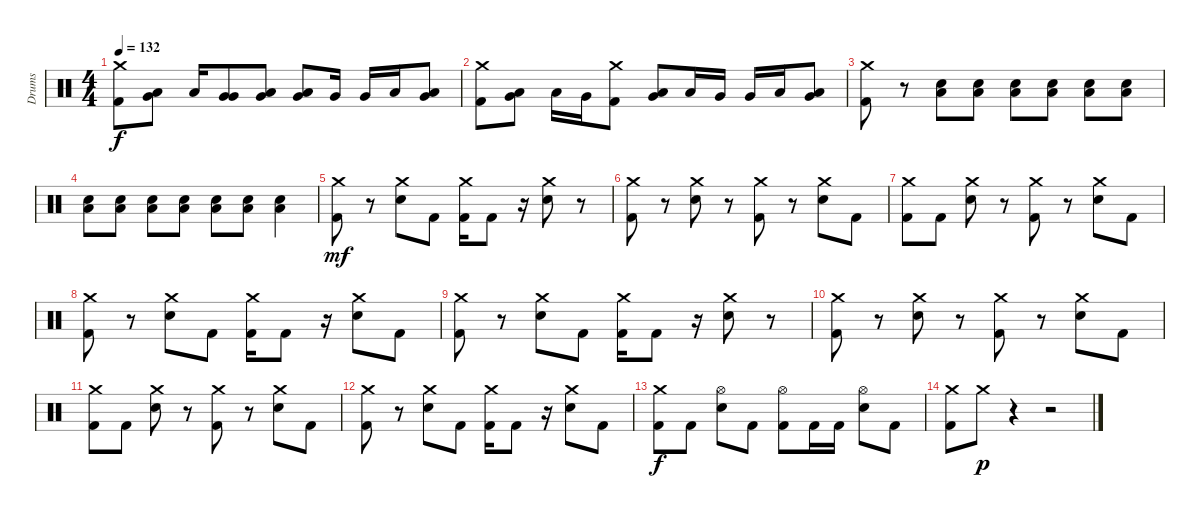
\track ("Drums" "Drums") {instrument percussion}
\staff {score}
\articulation defaults
\ts (4 4)
\tempo 132
\clef neutral
\ks c
("Crash medium (hit)" "Kick (hit) 2").8{dy f} ("Very Low Tom (hit)" "Low Floor Tom (hit)").8 "Low Floor Tom (hit)".16 ("Very Low Tom (hit)" "Very Low Tom (hit)").8 ("Very Low Tom (hit)" "Low Floor Tom (hit)").8 ("Very Low Tom (hit)" "Low Floor Tom (hit)").8 "Very Low Tom (hit)".16 "Very Low Tom (hit)".16 "Low Floor Tom (hit)".16 ("Very Low Tom (hit)" "Low Floor Tom (hit)").8 |
("Crash medium (hit)" "Kick (hit) 2").8 ("Very Low Tom (hit)" "Low Floor Tom (hit)").8 "Low Floor Tom (hit)".16 "Very Low Tom (hit)".16 ("Crash medium (hit)" "Kick (hit) 2").8 ("Very Low Tom (hit)" "Low Floor Tom (hit)").8 "Low Floor Tom (hit)".16 "Very Low Tom (hit)".16 "Very Low Tom (hit)".16 "Low Floor Tom (hit)".16 ("Very Low Tom (hit)" "Low Floor Tom (hit)").8 |
("Crash medium (hit)" "Kick (hit) 2").8 r.8{volume 6} ("Electric Snare (hit)" "Low Floor Tom (hit)").8{volume 13} ("Electric Snare (hit)" "Low Floor Tom (hit)").8 ("Electric Snare (hit)" "Low Floor Tom (hit)").8 ("Electric Snare (hit)" "Low Floor Tom (hit)").8 ("Electric Snare (hit)" "Low Floor Tom (hit)").8 ("Electric Snare (hit)" "Low Floor Tom (hit)").8 |
("Electric Snare (hit)" "Low Floor Tom (hit)").8 ("Electric Snare (hit)" "Low Floor Tom (hit)").8 ("Electric Snare (hit)" "Low Floor Tom (hit)").8 ("Electric Snare (hit)" "Low Floor Tom (hit)").8 ("Electric Snare (hit)" "Low Floor Tom (hit)").8 ("Electric Snare (hit)" "Low Floor Tom (hit)").8 ("Electric Snare (hit)" "Low Floor Tom (hit)").4 |
("Crash medium (hit)" "Kick (hit) 2").8{dy mf} r.8 ("Crash medium (hit)" "Electric Snare (hit)").8 "Kick (hit) 2".8 ("Crash medium (hit)" "Kick (hit) 2").16 "Kick (hit) 2".8 r.16 ("Crash medium (hit)" "Electric Snare (hit)").8 r.8 |
("Crash medium (hit)" "Kick (hit) 2").8 r.8 ("Crash medium (hit)" "Electric Snare (hit)").8 r.8 ("Crash medium (hit)" "Kick (hit) 2").8 r.8 ("Crash medium (hit)" "Electric Snare (hit)").8 "Kick (hit) 2".8 |
("Crash medium (hit)" "Kick (hit) 2").8 "Kick (hit) 2".8 ("Crash medium (hit)" "Electric Snare (hit)").8 r.8 ("Crash medium (hit)" "Kick (hit) 2").8 r.8 ("Crash medium (hit)" "Electric Snare (hit)").8 "Kick (hit) 2".8 |
("Crash medium (hit)" "Kick (hit) 2").8 r.8 ("Crash medium (hit)" "Electric Snare (hit)").8 "Kick (hit) 2".8 ("Crash medium (hit)" "Kick (hit) 2").16 "Kick (hit) 2".8 r.16 ("Crash medium (hit)" "Electric Snare (hit)").8 "Kick (hit) 2".8 |
("Crash medium (hit)" "Kick (hit) 2").8 r.8 ("Crash medium (hit)" "Electric Snare (hit)").8 "Kick (hit) 2".8 ("Crash medium (hit)" "Kick (hit) 2").16 "Kick (hit) 2".8 r.16 ("Crash medium (hit)" "Electric Snare (hit)").8 r.8 |
("Crash medium (hit)" "Kick (hit) 2").8 r.8 ("Crash medium (hit)" "Electric Snare (hit)").8 r.8 ("Crash medium (hit)" "Kick (hit) 2").8 r.8 ("Crash medium (hit)" "Electric Snare (hit)").8 "Kick (hit) 2".8 |
("Crash medium (hit)" "Kick (hit) 2").8 "Kick (hit) 2".8 ("Crash medium (hit)" "Electric Snare (hit)").8 r.8 ("Crash medium (hit)" "Kick (hit) 2").8 r.8 ("Crash medium (hit)" "Electric Snare (hit)").8 "Kick (hit) 2".8 |
("Crash medium (hit)" "Kick (hit) 2").8 r.8 ("Crash medium (hit)" "Electric Snare (hit)").8 "Kick (hit) 2".8 ("Crash medium (hit)" "Kick (hit) 2").16 "Kick (hit) 2".8 r.16 ("Crash medium (hit)" "Electric Snare (hit)").8 "Kick (hit) 2".8 |
("Crash medium (hit)" "Kick (hit) 2").8{dy f} "Kick (hit) 2".8 ("Hi-Hat (open)" "Electric Snare (hit)").8 "Kick (hit) 2".8 ("Hi-Hat (open)" "Kick (hit) 2").8 "Kick (hit) 2".16 "Kick (hit) 2".16 ("Hi-Hat (open)" "Electric Snare (hit)").8 "Kick (hit) 2".8 |
("Crash medium (hit)" "Kick (hit) 2").8 "Crash medium (hit)".8{dy p} r.4 r.2
